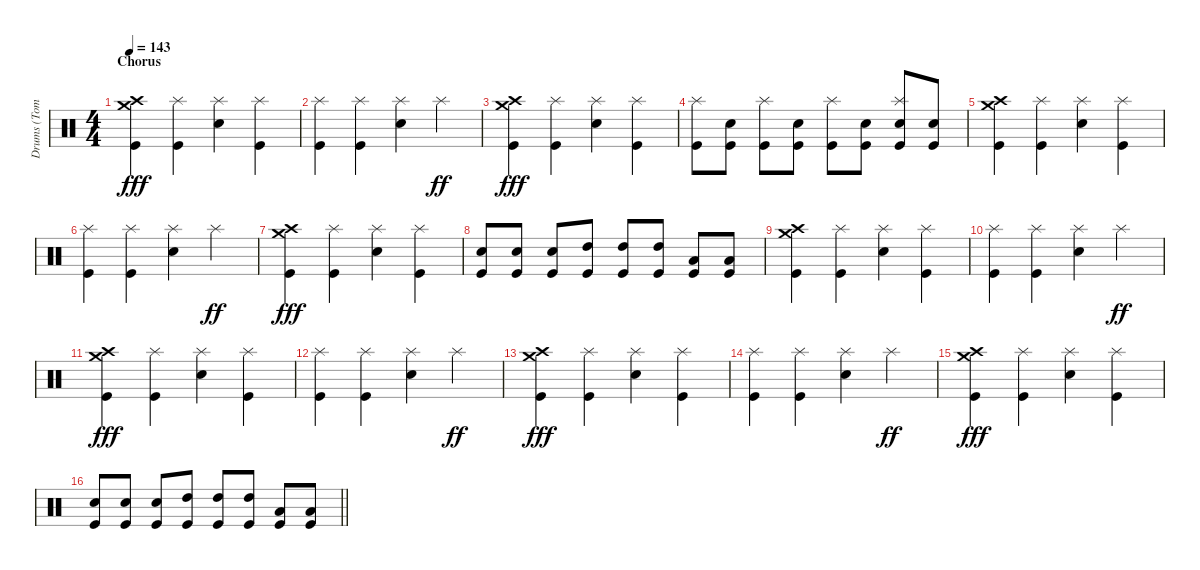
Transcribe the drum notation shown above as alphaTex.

\track ("Drums (Tommy Clufetos)" "Drums (Tom") {instrument percussion}
\staff {score}
\articulation defaults
\ts (4 4)
\section ("" "Chorus")
\tempo 143
\clef neutral
\ks c
("Crash high (hit)" "Crash medium (hit)" "Kick (hit)").4{dy fff} ("Splash (hit)" "Kick (hit)").4 ("Splash (hit)" "Electric Snare (hit)").4 ("Splash (hit)" "Kick (hit)").4 |
("Splash (hit)" "Kick (hit)").4 ("Splash (hit)" "Kick (hit)").4 ("Splash (hit)" "Electric Snare (hit)").4 "Splash (hit)".4{dy ff} |
("Crash high (hit)" "Crash medium (hit)" "Kick (hit)").4{dy fff} ("Splash (hit)" "Kick (hit)").4 ("Splash (hit)" "Electric Snare (hit)").4 ("Splash (hit)" "Kick (hit)").4 |
("Splash (hit)" "Kick (hit)").8 ("Electric Snare (hit)" "Kick (hit)").8 ("Splash (hit)" "Kick (hit)").8 ("Electric Snare (hit)" "Kick (hit)").8 ("Splash (hit)" "Kick (hit)").8 ("Electric Snare (hit)" "Kick (hit)").8 ("Splash (hit)" "Electric Snare (hit)" "Kick (hit)").8 ("Electric Snare (hit)" "Kick (hit)").8 |
("Crash high (hit)" "Crash medium (hit)" "Kick (hit)").4 ("Splash (hit)" "Kick (hit)").4 ("Splash (hit)" "Electric Snare (hit)").4 ("Splash (hit)" "Kick (hit)").4 |
("Splash (hit)" "Kick (hit)").4 ("Splash (hit)" "Kick (hit)").4 ("Splash (hit)" "Electric Snare (hit)").4 "Splash (hit)".4{dy ff} |
("Crash high (hit)" "Crash medium (hit)" "Kick (hit)").4{dy fff} ("Splash (hit)" "Kick (hit)").4 ("Splash (hit)" "Electric Snare (hit)").4 ("Splash (hit)" "Kick (hit)").4 |
("Electric Snare (hit)" "Kick (hit)").8 ("Electric Snare (hit)" "Kick (hit)").8 ("Electric Snare (hit)" "Kick (hit)").8 ("High Tom (hit)" "Kick (hit)").8 ("High Tom (hit)" "Kick (hit)").8 ("High Tom (hit)" "Kick (hit)").8 ("Low Tom (hit)" "Kick (hit)").8 ("Low Tom (hit)" "Kick (hit)").8 |
("Crash high (hit)" "Crash medium (hit)" "Kick (hit)").4 ("Splash (hit)" "Kick (hit)").4 ("Splash (hit)" "Electric Snare (hit)").4 ("Splash (hit)" "Kick (hit)").4 |
("Splash (hit)" "Kick (hit)").4 ("Splash (hit)" "Kick (hit)").4 ("Splash (hit)" "Electric Snare (hit)").4 "Splash (hit)".4{dy ff} |
("Crash high (hit)" "Crash medium (hit)" "Kick (hit)").4{dy fff} ("Splash (hit)" "Kick (hit)").4 ("Splash (hit)" "Electric Snare (hit)").4 ("Splash (hit)" "Kick (hit)").4 |
("Splash (hit)" "Kick (hit)").4 ("Splash (hit)" "Kick (hit)").4 ("Splash (hit)" "Electric Snare (hit)").4 "Splash (hit)".4{dy ff} |
("Crash high (hit)" "Crash medium (hit)" "Kick (hit)").4{dy fff} ("Splash (hit)" "Kick (hit)").4 ("Splash (hit)" "Electric Snare (hit)").4 ("Splash (hit)" "Kick (hit)").4 |
("Splash (hit)" "Kick (hit)").4 ("Splash (hit)" "Kick (hit)").4 ("Splash (hit)" "Electric Snare (hit)").4 "Splash (hit)".4{dy ff} |
("Crash high (hit)" "Crash medium (hit)" "Kick (hit)").4{dy fff} ("Splash (hit)" "Kick (hit)").4 ("Splash (hit)" "Electric Snare (hit)").4 ("Splash (hit)" "Kick (hit)").4 |
\barLineRight lightlight
("Electric Snare (hit)" "Kick (hit)").8 ("Electric Snare (hit)" "Kick (hit)").8 ("Electric Snare (hit)" "Kick (hit)").8 ("High Tom (hit)" "Kick (hit)").8 ("High Tom (hit)" "Kick (hit)").8 ("High Tom (hit)" "Kick (hit)").8 ("Low Tom (hit)" "Kick (hit)").8 ("Low Tom (hit)" "Kick (hit)").8
